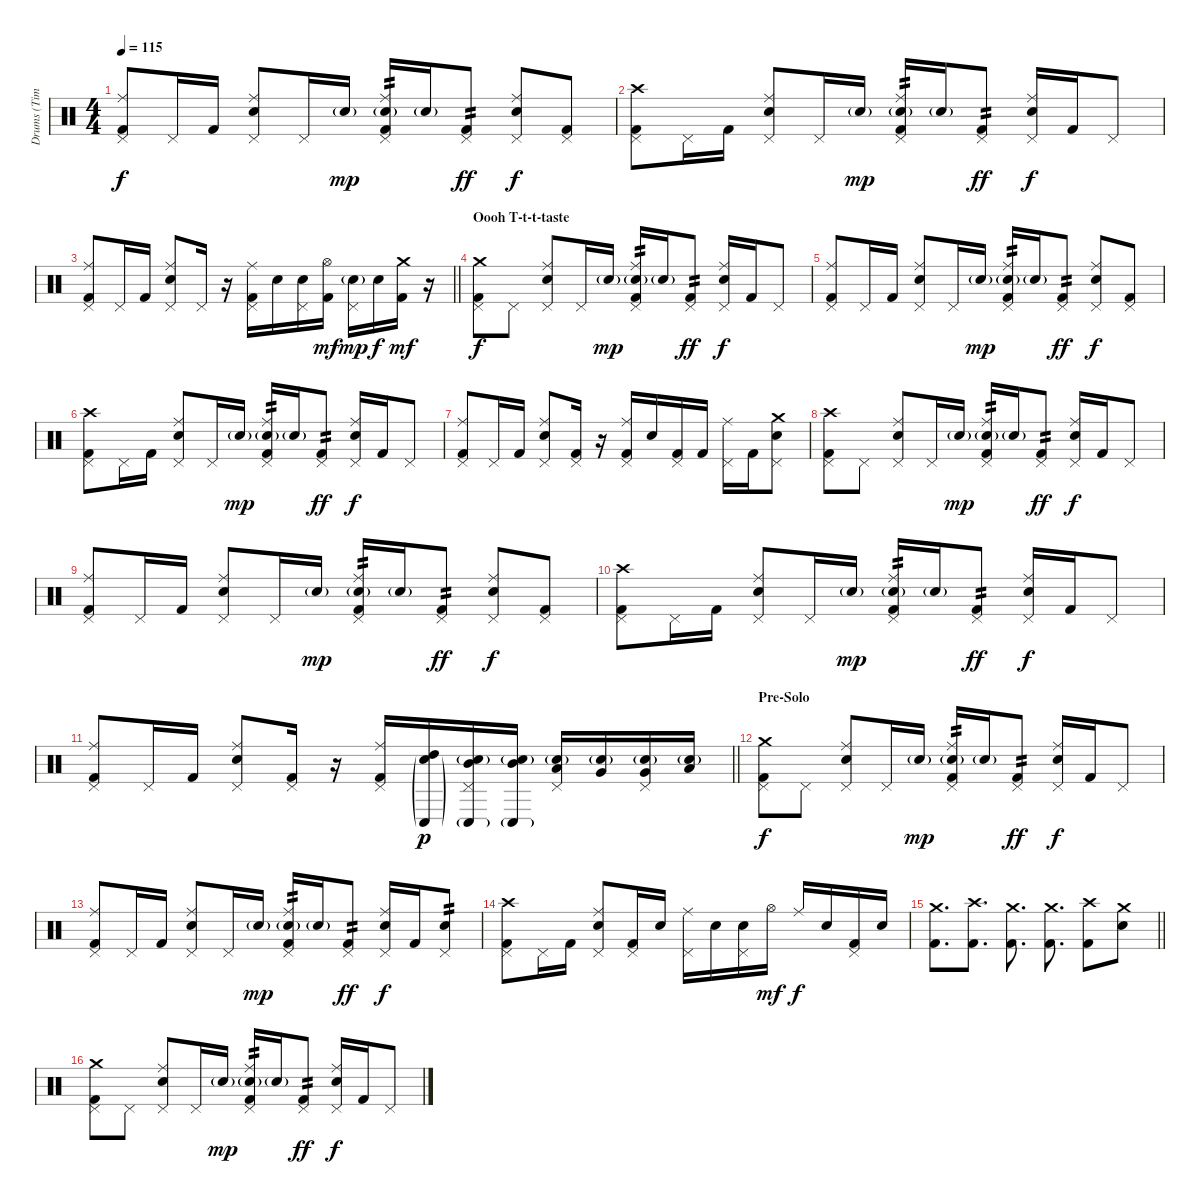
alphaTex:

\track ("Drums (Tim Alexander)" "Drums (Tim") {instrument percussion}
\staff {score}
\articulation defaults
\ts (4 4)
\tempo 115
\clef neutral
\ks c
("Pedal Hi-Hat (hit)" "Ride (middle)" "Kick (hit) 2").8{dy f} "Pedal Hi-Hat (hit)".16 "Kick (hit) 2".16 ("Pedal Hi-Hat (hit)" "Ride (middle)" "Electric Snare (hit)").8 "Pedal Hi-Hat (hit)".16 "Electric Snare (hit)"{g}.16{dy mp} ("Pedal Hi-Hat (hit)" "Ride (middle)" "Electric Snare (hit)"{g} "Kick (hit) 2").16{tp 2} "Electric Snare (hit)"{g}.16 ("Pedal Hi-Hat (hit)" "Kick (hit) 2").8{tp 2 dy ff} ("Pedal Hi-Hat (hit)" "Ride (middle)" "Electric Snare (hit)").8{dy f} ("Pedal Hi-Hat (hit)" "Kick (hit) 2").8 |
("Pedal Hi-Hat (hit)" "Crash high (hit)" "Kick (hit) 2").8 "Pedal Hi-Hat (hit)".16 "Kick (hit) 2".16 ("Pedal Hi-Hat (hit)" "Ride (middle)" "Electric Snare (hit)").8 "Pedal Hi-Hat (hit)".16 "Electric Snare (hit)"{g}.16{dy mp} ("Pedal Hi-Hat (hit)" "Ride (middle)" "Electric Snare (hit)"{g} "Kick (hit) 2").16{tp 2} "Electric Snare (hit)"{g}.16 ("Pedal Hi-Hat (hit)" "Kick (hit) 2").8{tp 2 dy ff} ("Pedal Hi-Hat (hit)" "Ride (middle)" "Electric Snare (hit)").16{dy f} "Kick (hit) 2".16 "Pedal Hi-Hat (hit)".8 |
\barLineRight lightlight
("Pedal Hi-Hat (hit)" "Ride (middle)" "Kick (hit) 2").8 "Pedal Hi-Hat (hit)".16 "Kick (hit) 2".16 ("Pedal Hi-Hat (hit)" "Ride (middle)" "Electric Snare (hit)").8 "Pedal Hi-Hat (hit)".16 r.16 ("Pedal Hi-Hat (hit)" "Ride (middle)" "Kick (hit) 2").16 "Electric Snare (hit)".16 ("Pedal Hi-Hat (hit)" "Electric Snare (hit)").16 ("Hi-Hat (open)" "Kick (hit) 2").16{dy mf} ("Pedal Hi-Hat (hit)" "Electric Snare (hit)"{g}).16{dy mp} "Electric Snare (hit)".16{dy f} ("Crash medium (hit)" "Kick (hit) 2").16{dy mf} r.16 |
\section ("" "Oooh T-t-t-taste")
("Pedal Hi-Hat (hit)" "Crash medium (hit)" "Kick (hit) 2").8{dy f} "Pedal Hi-Hat (hit)".8 ("Pedal Hi-Hat (hit)" "Ride (middle)" "Electric Snare (hit)").8 "Pedal Hi-Hat (hit)".16 "Electric Snare (hit)"{g}.16{dy mp} ("Pedal Hi-Hat (hit)" "Ride (middle)" "Electric Snare (hit)"{g} "Kick (hit) 2").16{tp 2} "Electric Snare (hit)"{g}.16 ("Pedal Hi-Hat (hit)" "Kick (hit) 2").8{tp 2 dy ff} ("Pedal Hi-Hat (hit)" "Ride (middle)" "Electric Snare (hit)").16{dy f} "Kick (hit) 2".16 "Pedal Hi-Hat (hit)".8 |
("Pedal Hi-Hat (hit)" "Ride (middle)" "Kick (hit) 2").8 "Pedal Hi-Hat (hit)".16 "Kick (hit) 2".16 ("Pedal Hi-Hat (hit)" "Ride (middle)" "Electric Snare (hit)").8 "Pedal Hi-Hat (hit)".16 "Electric Snare (hit)"{g}.16{dy mp} ("Pedal Hi-Hat (hit)" "Ride (middle)" "Electric Snare (hit)"{g} "Kick (hit) 2").16{tp 2} "Electric Snare (hit)"{g}.16 ("Pedal Hi-Hat (hit)" "Kick (hit) 2").8{tp 2 dy ff} ("Pedal Hi-Hat (hit)" "Ride (middle)" "Electric Snare (hit)").8{dy f} ("Pedal Hi-Hat (hit)" "Kick (hit) 2").8 |
("Pedal Hi-Hat (hit)" "Crash high (hit)" "Kick (hit) 2").8 "Pedal Hi-Hat (hit)".16 "Kick (hit) 2".16 ("Pedal Hi-Hat (hit)" "Ride (middle)" "Electric Snare (hit)").8 "Pedal Hi-Hat (hit)".16 "Electric Snare (hit)"{g}.16{dy mp} ("Pedal Hi-Hat (hit)" "Ride (middle)" "Electric Snare (hit)"{g} "Kick (hit) 2").16{tp 2} "Electric Snare (hit)"{g}.16 ("Pedal Hi-Hat (hit)" "Kick (hit) 2").8{tp 2 dy ff} ("Pedal Hi-Hat (hit)" "Ride (middle)" "Electric Snare (hit)").16{dy f} "Kick (hit) 2".16 "Pedal Hi-Hat (hit)".8 |
("Pedal Hi-Hat (hit)" "Ride (middle)" "Kick (hit) 2").8 "Pedal Hi-Hat (hit)".16 "Kick (hit) 2".16 ("Pedal Hi-Hat (hit)" "Ride (middle)" "Electric Snare (hit)").8 ("Pedal Hi-Hat (hit)" "Kick (hit) 2").16 r.16 ("Pedal Hi-Hat (hit)" "Ride (middle)" "Kick (hit) 2").16 "Electric Snare (hit)".16 ("Pedal Hi-Hat (hit)" "Kick (hit) 2").16 "Kick (hit) 2".16 ("Pedal Hi-Hat (hit)" "Ride (middle)").16 "Kick (hit) 2".16 ("Pedal Hi-Hat (hit)" "Crash medium (hit)" "Electric Snare (hit)").8 |
("Pedal Hi-Hat (hit)" "Crash high (hit)" "Kick (hit) 2").8 "Pedal Hi-Hat (hit)".8 ("Pedal Hi-Hat (hit)" "Ride (middle)" "Electric Snare (hit)").8 "Pedal Hi-Hat (hit)".16 "Electric Snare (hit)"{g}.16{dy mp} ("Pedal Hi-Hat (hit)" "Ride (middle)" "Electric Snare (hit)"{g} "Kick (hit) 2").16{tp 2} "Electric Snare (hit)"{g}.16 ("Pedal Hi-Hat (hit)" "Kick (hit) 2").8{tp 2 dy ff} ("Pedal Hi-Hat (hit)" "Ride (middle)" "Electric Snare (hit)").16{dy f} "Kick (hit) 2".16 "Pedal Hi-Hat (hit)".8 |
("Pedal Hi-Hat (hit)" "Ride (middle)" "Kick (hit) 2").8 "Pedal Hi-Hat (hit)".16 "Kick (hit) 2".16 ("Pedal Hi-Hat (hit)" "Ride (middle)" "Electric Snare (hit)").8 "Pedal Hi-Hat (hit)".16 "Electric Snare (hit)"{g}.16{dy mp} ("Pedal Hi-Hat (hit)" "Ride (middle)" "Electric Snare (hit)"{g} "Kick (hit) 2").16{tp 2} "Electric Snare (hit)"{g}.16 ("Pedal Hi-Hat (hit)" "Kick (hit) 2").8{tp 2 dy ff} ("Pedal Hi-Hat (hit)" "Ride (middle)" "Electric Snare (hit)").8{dy f} ("Pedal Hi-Hat (hit)" "Kick (hit) 2").8 |
("Pedal Hi-Hat (hit)" "Crash high (hit)" "Kick (hit) 2").8 "Pedal Hi-Hat (hit)".16 "Kick (hit) 2".16 ("Pedal Hi-Hat (hit)" "Ride (middle)" "Electric Snare (hit)").8 "Pedal Hi-Hat (hit)".16 "Electric Snare (hit)"{g}.16{dy mp} ("Pedal Hi-Hat (hit)" "Ride (middle)" "Electric Snare (hit)"{g} "Kick (hit) 2").16{tp 2} "Electric Snare (hit)"{g}.16 ("Pedal Hi-Hat (hit)" "Kick (hit) 2").8{tp 2 dy ff} ("Pedal Hi-Hat (hit)" "Ride (middle)" "Electric Snare (hit)").16{dy f} "Kick (hit) 2".16 "Pedal Hi-Hat (hit)".8 |
\barLineRight lightlight
("Pedal Hi-Hat (hit)" "Ride (middle)" "Kick (hit) 2").8 "Pedal Hi-Hat (hit)".16 "Kick (hit) 2".16 ("Pedal Hi-Hat (hit)" "Ride (middle)" "Electric Snare (hit)").8 ("Pedal Hi-Hat (hit)" "Kick (hit) 2").16 r.16 ("Pedal Hi-Hat (hit)" "Ride (middle)" "Kick (hit) 2").16 ("Conga low (hit)"{g} "High Tom (hit)" "Electric Snare (hit)"{g}).16{dy p} ("Pedal Hi-Hat (hit)" "Conga low (hit)"{g} "Mid Tom (hit)" "Electric Snare (hit)"{g}).16 ("Conga low (hit)"{g} "Mid Tom (hit)" "Electric Snare (hit)"{g}).16 ("Pedal Hi-Hat (hit)" "Low Tom (hit)" "Electric Snare (hit)"{g}).16 ("Very Low Tom (hit)" "Electric Snare (hit)"{g}).16 ("Pedal Hi-Hat (hit)" "Very Low Tom (hit)" "Electric Snare (hit)"{g}).16 ("Low Floor Tom (hit)" "Electric Snare (hit)"{g}).16 |
\section ("" "Pre-Solo")
("Pedal Hi-Hat (hit)" "Crash medium (hit)" "Kick (hit) 2").8{dy f} "Pedal Hi-Hat (hit)".8 ("Pedal Hi-Hat (hit)" "Ride (middle)" "Electric Snare (hit)").8 "Pedal Hi-Hat (hit)".16 "Electric Snare (hit)"{g}.16{dy mp} ("Pedal Hi-Hat (hit)" "Ride (middle)" "Electric Snare (hit)"{g} "Kick (hit) 2").16{tp 2} "Electric Snare (hit)"{g}.16 ("Pedal Hi-Hat (hit)" "Kick (hit) 2").8{tp 2 dy ff} ("Pedal Hi-Hat (hit)" "Ride (middle)" "Electric Snare (hit)").16{dy f} "Kick (hit) 2".16 "Pedal Hi-Hat (hit)".8 |
("Pedal Hi-Hat (hit)" "Ride (middle)" "Kick (hit) 2").8 "Pedal Hi-Hat (hit)".16 "Kick (hit) 2".16 ("Pedal Hi-Hat (hit)" "Ride (middle)" "Electric Snare (hit)").8 "Pedal Hi-Hat (hit)".16 "Electric Snare (hit)"{g}.16{dy mp} ("Pedal Hi-Hat (hit)" "Ride (middle)" "Electric Snare (hit)"{g} "Kick (hit) 2").16{tp 2} "Electric Snare (hit)"{g}.16 ("Pedal Hi-Hat (hit)" "Kick (hit) 2").8{tp 2 dy ff} ("Pedal Hi-Hat (hit)" "Ride (middle)" "Electric Snare (hit)").16{dy f} "Kick (hit) 2".16 ("Pedal Hi-Hat (hit)" "Electric Snare (hit)").8{tp 2} |
("Pedal Hi-Hat (hit)" "Crash high (hit)" "Kick (hit) 2").8 "Pedal Hi-Hat (hit)".16 "Kick (hit) 2".16 ("Pedal Hi-Hat (hit)" "Ride (middle)" "Electric Snare (hit)").8 ("Pedal Hi-Hat (hit)" "Kick (hit) 2").16 "Electric Snare (hit)".16 ("Pedal Hi-Hat (hit)" "Ride (middle)").16 "Electric Snare (hit)".16 ("Pedal Hi-Hat (hit)" "Electric Snare (hit)").16 "Hi-Hat (open)".16{dy mf} "Ride (middle)".16{dy f} "Electric Snare (hit)".16 ("Pedal Hi-Hat (hit)" "Kick (hit) 2").16 "Electric Snare (hit)".16 |
\barLineRight lightlight
("Crash medium (hit)" "Kick (hit) 2").8{d} ("Crash high (hit)" "Kick (hit) 2").8{d} ("Crash medium (hit)" "Kick (hit) 2").8{d} ("Crash medium (hit)" "Kick (hit) 2").8{d} ("Crash high (hit)" "Kick (hit) 2").8 ("Crash medium (hit)" "Electric Snare (hit)").8 |
("Pedal Hi-Hat (hit)" "Crash medium (hit)" "Kick (hit) 2").8 "Pedal Hi-Hat (hit)".8 ("Pedal Hi-Hat (hit)" "Ride (middle)" "Electric Snare (hit)").8 "Pedal Hi-Hat (hit)".16 "Electric Snare (hit)"{g}.16{dy mp} ("Pedal Hi-Hat (hit)" "Ride (middle)" "Electric Snare (hit)"{g} "Kick (hit) 2").16{tp 2} "Electric Snare (hit)"{g}.16 ("Pedal Hi-Hat (hit)" "Kick (hit) 2").8{tp 2 dy ff} ("Pedal Hi-Hat (hit)" "Ride (middle)" "Electric Snare (hit)").16{dy f} "Kick (hit) 2".16 "Pedal Hi-Hat (hit)".8
